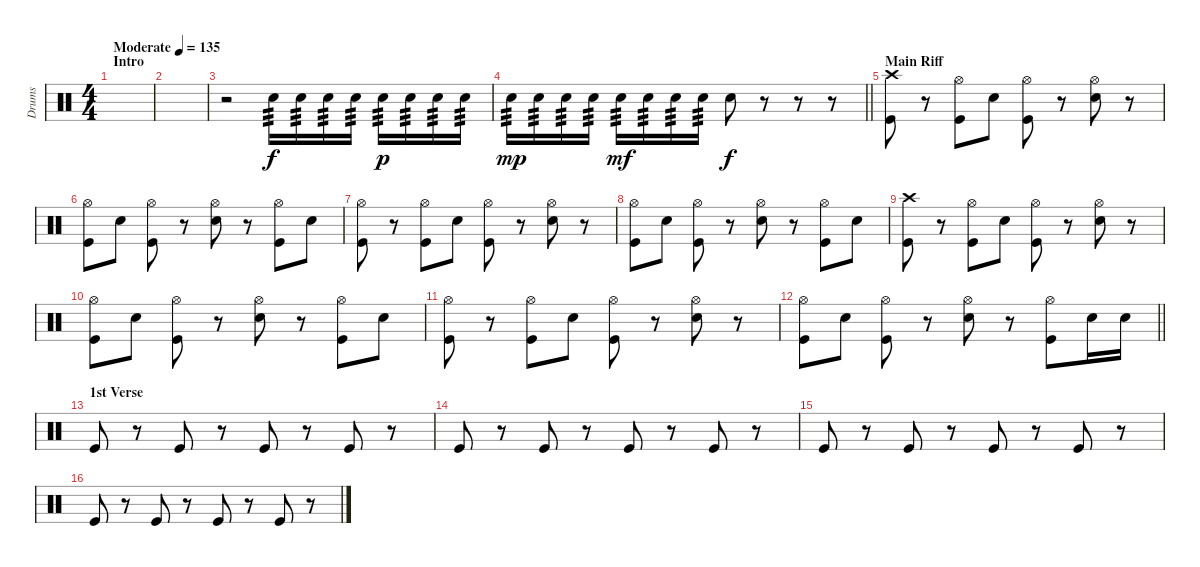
\track ("Drums" "Drums") {instrument percussion}
\staff {score}
\articulation defaults
\ts (4 4)
\section ("" "Intro")
\tempo (135 "Moderate")
\clef neutral
\ks c
|
|
r.2 "Electric Snare (hit)".16{tp 3} "Electric Snare (hit)".16{tp 3} "Electric Snare (hit)".16{tp 3} "Electric Snare (hit)".16{tp 3} "Electric Snare (hit)".16{tp 3 dy p} "Electric Snare (hit)".16{tp 3} "Electric Snare (hit)".16{tp 3} "Electric Snare (hit)".16{tp 3} |
\barLineRight lightlight "Electric Snare (hit)".16{tp 3 dy mp} "Electric Snare (hit)".16{tp 3} "Electric Snare (hit)".16{tp 3} "Electric Snare (hit)".16{tp 3} "Electric Snare (hit)".16{tp 3 dy mf} "Electric Snare (hit)".16{tp 3} "Electric Snare (hit)".16{tp 3} "Electric Snare (hit)".16{tp 3} "Electric Snare (hit)".8{dy f}
r.8 r.8 r.8 |
\section ("" "Main Riff")
("Crash high (hit)" "Kick (hit)").8 r.8 ("Hi-Hat (open)" "Kick (hit)").8 "Electric Snare (hit)".8 ("Hi-Hat (open)" "Kick (hit)").8 r.8 ("Hi-Hat (open)" "Electric Snare (hit)").8 r.8 |
("Hi-Hat (open)" "Kick (hit)").8 "Electric Snare (hit)".8 ("Hi-Hat (open)" "Kick (hit)").8 r.8 ("Hi-Hat (open)" "Electric Snare (hit)").8 r.8 ("Hi-Hat (open)" "Kick (hit)").8 "Electric Snare (hit)".8 |
("Hi-Hat (open)" "Kick (hit)").8 r.8 ("Hi-Hat (open)" "Kick (hit)").8 "Electric Snare (hit)".8 ("Hi-Hat (open)" "Kick (hit)").8 r.8 ("Hi-Hat (open)" "Electric Snare (hit)").8 r.8 |
("Hi-Hat (open)" "Kick (hit)").8 "Electric Snare (hit)".8 ("Hi-Hat (open)" "Kick (hit)").8 r.8 ("Hi-Hat (open)" "Electric Snare (hit)").8 r.8 ("Hi-Hat (open)" "Kick (hit)").8 "Electric Snare (hit)".8 |
("Crash high (hit)" "Kick (hit)").8 r.8 ("Hi-Hat (open)" "Kick (hit)").8 "Electric Snare (hit)".8 ("Hi-Hat (open)" "Kick (hit)").8 r.8 ("Hi-Hat (open)" "Electric Snare (hit)").8 r.8 |
("Hi-Hat (open)" "Kick (hit)").8 "Electric Snare (hit)".8 ("Hi-Hat (open)" "Kick (hit)").8 r.8 ("Hi-Hat (open)" "Electric Snare (hit)").8 r.8 ("Hi-Hat (open)" "Kick (hit)").8 "Electric Snare (hit)".8 |
("Hi-Hat (open)" "Kick (hit)").8 r.8 ("Hi-Hat (open)" "Kick (hit)").8 "Electric Snare (hit)".8 ("Hi-Hat (open)" "Kick (hit)").8 r.8 ("Hi-Hat (open)" "Electric Snare (hit)").8 r.8 |
\barLineRight lightlight
("Hi-Hat (open)" "Kick (hit)").8 "Electric Snare (hit)".8 ("Hi-Hat (open)" "Kick (hit)").8 r.8 ("Hi-Hat (open)" "Electric Snare (hit)").8 r.8 ("Hi-Hat (open)" "Kick (hit)").8 "Electric Snare (hit)".16 "Electric Snare (hit)".16 |
\section ("" "1st Verse")
"Kick (hit)".8 r.8 "Kick (hit)".8 r.8 "Kick (hit)".8 r.8 "Kick (hit)".8 r.8 |
"Kick (hit)".8 r.8 "Kick (hit)".8 r.8 "Kick (hit)".8 r.8 "Kick (hit)".8 r.8 |
"Kick (hit)".8 r.8 "Kick (hit)".8 r.8 "Kick (hit)".8 r.8 "Kick (hit)".8 r.8 |
"Kick (hit)".8 r.8 "Kick (hit)".8 r.8 "Kick (hit)".8 r.8 "Kick (hit)".8 r.8
